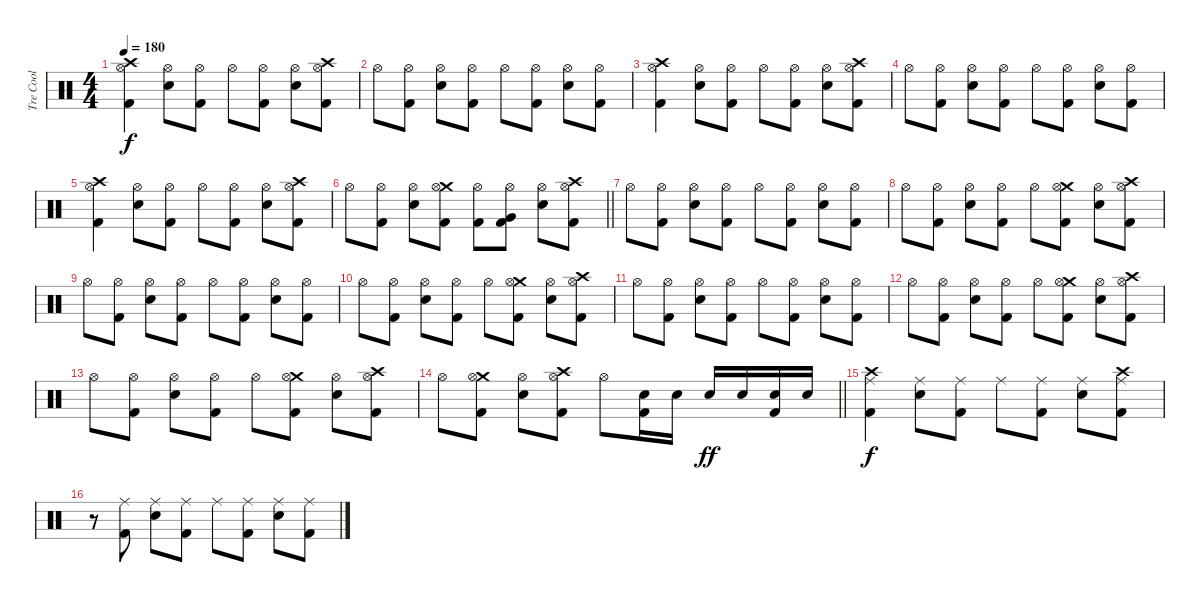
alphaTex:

\track ("Tre Cool" "Tre Cool") {instrument percussion}
\staff {score}
\articulation defaults
\ts (4 4)
\tempo 180
\clef neutral
\ks c
("Crash high (hit)" "Hi-Hat (open)" "Kick (hit) 2").4{dy f} ("Hi-Hat (open)" "Electric Snare (hit)").8 ("Hi-Hat (open)" "Kick (hit) 2").8 "Hi-Hat (open)".8 ("Hi-Hat (open)" "Kick (hit) 2").8 ("Hi-Hat (open)" "Electric Snare (hit)").8 ("Crash high (hit)" "Hi-Hat (open)" "Kick (hit) 2").8 |
"Hi-Hat (open)".8 ("Hi-Hat (open)" "Kick (hit) 2").8 ("Hi-Hat (open)" "Electric Snare (hit)").8 ("Hi-Hat (open)" "Kick (hit) 2").8 "Hi-Hat (open)".8 ("Hi-Hat (open)" "Kick (hit) 2").8 ("Hi-Hat (open)" "Electric Snare (hit)").8 ("Hi-Hat (open)" "Kick (hit) 2").8 |
("Crash high (hit)" "Hi-Hat (open)" "Kick (hit) 2").4 ("Hi-Hat (open)" "Electric Snare (hit)").8 ("Hi-Hat (open)" "Kick (hit) 2").8 "Hi-Hat (open)".8 ("Hi-Hat (open)" "Kick (hit) 2").8 ("Hi-Hat (open)" "Electric Snare (hit)").8 ("Crash high (hit)" "Hi-Hat (open)" "Kick (hit) 2").8 |
"Hi-Hat (open)".8 ("Hi-Hat (open)" "Kick (hit) 2").8 ("Hi-Hat (open)" "Electric Snare (hit)").8 ("Hi-Hat (open)" "Kick (hit) 2").8 "Hi-Hat (open)".8 ("Hi-Hat (open)" "Kick (hit) 2").8 ("Hi-Hat (open)" "Electric Snare (hit)").8 ("Hi-Hat (open)" "Kick (hit) 2").8 |
("Crash high (hit)" "Hi-Hat (open)" "Kick (hit) 2").4 ("Hi-Hat (open)" "Electric Snare (hit)").8 ("Hi-Hat (open)" "Kick (hit) 2").8 "Hi-Hat (open)".8 ("Hi-Hat (open)" "Kick (hit) 2").8 ("Hi-Hat (open)" "Electric Snare (hit)").8 ("Crash high (hit)" "Hi-Hat (open)" "Kick (hit) 2").8 |
\barLineRight lightlight "Hi-Hat (open)".8
("Hi-Hat (open)" "Kick (hit) 2").8 ("Hi-Hat (open)" "Electric Snare (hit)").8 ("Crash medium (hit)" "Hi-Hat (open)" "Kick (hit) 2").8 ("Hi-Hat (open)" "Kick (hit) 2").8 ("Hi-Hat (open)" "Very Low Tom (hit)" "Kick (hit) 2").8 ("Hi-Hat (open)" "Electric Snare (hit)").8 ("Crash high (hit)" "Hi-Hat (open)" "Kick (hit) 2").8 |
"Hi-Hat (open)".8 ("Hi-Hat (open)" "Kick (hit) 2").8 ("Hi-Hat (open)" "Electric Snare (hit)").8 ("Hi-Hat (open)" "Kick (hit) 2").8 "Hi-Hat (open)".8 ("Hi-Hat (open)" "Kick (hit) 2").8 ("Hi-Hat (open)" "Electric Snare (hit)").8 ("Hi-Hat (open)" "Kick (hit) 2").8 |
"Hi-Hat (open)".8 ("Hi-Hat (open)" "Kick (hit) 2").8 ("Hi-Hat (open)" "Electric Snare (hit)").8 ("Hi-Hat (open)" "Kick (hit) 2").8 "Hi-Hat (open)".8 ("Crash medium (hit)" "Hi-Hat (open)" "Kick (hit) 2").8 ("Hi-Hat (open)" "Electric Snare (hit)").8 ("Crash high (hit)" "Hi-Hat (open)" "Kick (hit) 2").8 |
"Hi-Hat (open)".8 ("Hi-Hat (open)" "Kick (hit) 2").8 ("Hi-Hat (open)" "Electric Snare (hit)").8 ("Hi-Hat (open)" "Kick (hit) 2").8 "Hi-Hat (open)".8 ("Hi-Hat (open)" "Kick (hit) 2").8 ("Hi-Hat (open)" "Electric Snare (hit)").8 ("Hi-Hat (open)" "Kick (hit) 2").8 |
"Hi-Hat (open)".8 ("Hi-Hat (open)" "Kick (hit) 2").8 ("Hi-Hat (open)" "Electric Snare (hit)").8 ("Hi-Hat (open)" "Kick (hit) 2").8 "Hi-Hat (open)".8 ("Crash medium (hit)" "Hi-Hat (open)" "Kick (hit) 2").8 ("Hi-Hat (open)" "Electric Snare (hit)").8 ("Crash high (hit)" "Hi-Hat (open)" "Kick (hit) 2").8 |
"Hi-Hat (open)".8 ("Hi-Hat (open)" "Kick (hit) 2").8 ("Hi-Hat (open)" "Electric Snare (hit)").8 ("Hi-Hat (open)" "Kick (hit) 2").8 "Hi-Hat (open)".8 ("Hi-Hat (open)" "Kick (hit) 2").8 ("Hi-Hat (open)" "Electric Snare (hit)").8 ("Hi-Hat (open)" "Kick (hit) 2").8 |
"Hi-Hat (open)".8 ("Hi-Hat (open)" "Kick (hit) 2").8 ("Hi-Hat (open)" "Electric Snare (hit)").8 ("Hi-Hat (open)" "Kick (hit) 2").8 "Hi-Hat (open)".8 ("Crash medium (hit)" "Hi-Hat (open)" "Kick (hit) 2").8 ("Hi-Hat (open)" "Electric Snare (hit)").8 ("Crash high (hit)" "Hi-Hat (open)" "Kick (hit) 2").8 |
"Hi-Hat (open)".8 ("Hi-Hat (open)" "Kick (hit) 2").8 ("Hi-Hat (open)" "Electric Snare (hit)").8 ("Hi-Hat (open)" "Kick (hit) 2").8 "Hi-Hat (open)".8 ("Crash medium (hit)" "Hi-Hat (open)" "Kick (hit) 2").8 ("Hi-Hat (open)" "Electric Snare (hit)").8 ("Crash high (hit)" "Hi-Hat (open)" "Kick (hit) 2").8 |
\barLineRight lightlight "Hi-Hat (open)".8
("Crash medium (hit)" "Hi-Hat (open)" "Kick (hit) 2").8 ("Hi-Hat (open)" "Electric Snare (hit)").8 ("Crash high (hit)" "Hi-Hat (open)" "Kick (hit) 2").8 "Hi-Hat (open)".8 ("Electric Snare (hit)" "Kick (hit) 2").16 "Electric Snare (hit)".16 "Electric Snare (hit)".16{dy ff} "Electric Snare (hit)".16 ("Electric Snare (hit)" "Kick (hit) 2").16 "Electric Snare (hit)".16 |
("Crash high (hit)" "Ride (middle)" "Kick (hit) 2").4{dy f} ("Ride (middle)" "Electric Snare (hit)").8 ("Ride (middle)" "Kick (hit) 2").8 "Ride (middle)".8 ("Ride (middle)" "Kick (hit) 2").8 ("Ride (middle)" "Electric Snare (hit)").8 ("Crash high (hit)" "Ride (middle)" "Kick (hit) 2").8 |
r.8 ("Ride (middle)" "Kick (hit) 2").8 ("Ride (middle)" "Electric Snare (hit)").8 ("Ride (middle)" "Kick (hit) 2").8 "Ride (middle)".8 ("Ride (middle)" "Kick (hit) 2").8 ("Ride (middle)" "Electric Snare (hit)").8 ("Ride (middle)" "Kick (hit) 2").8
